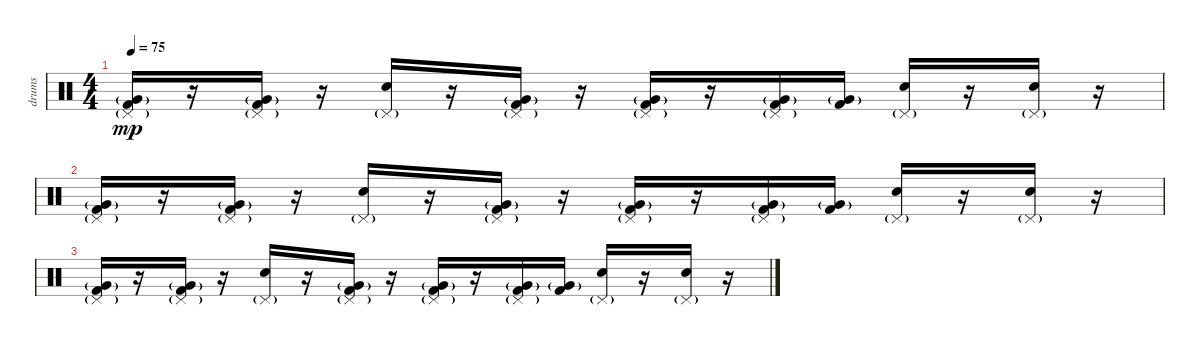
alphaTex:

\track ("drums" "drums") {instrument percussion}
\staff {score}
\articulation defaults
\ts (4 4)
\tempo 75
\clef neutral
\ks c
("Kick (hit) 2" "Very Low Tom (hit)"{g} "Pedal Hi-Hat (hit)"{g}).16{dy mp} r.16 ("Kick (hit) 2" "Very Low Tom (hit)"{g} "Pedal Hi-Hat (hit)"{g}).16 r.16 ("Electric Snare (hit)" "Pedal Hi-Hat (hit)"{g}).16 r.16 ("Kick (hit) 2" "Very Low Tom (hit)"{g} "Pedal Hi-Hat (hit)"{g}).16 r.16 ("Kick (hit) 2" "Very Low Tom (hit)"{g} "Pedal Hi-Hat (hit)"{g}).16 r.16 ("Kick (hit) 2" "Very Low Tom (hit)"{g} "Pedal Hi-Hat (hit)"{g}).16 ("Kick (hit) 2" "Very Low Tom (hit)"{g}).16 ("Electric Snare (hit)" "Pedal Hi-Hat (hit)"{g}).16 r.16 ("Electric Snare (hit)" "Pedal Hi-Hat (hit)"{g}).16 r.16 |
("Kick (hit) 2" "Very Low Tom (hit)"{g} "Pedal Hi-Hat (hit)"{g}).16 r.16 ("Kick (hit) 2" "Very Low Tom (hit)"{g} "Pedal Hi-Hat (hit)"{g}).16 r.16 ("Electric Snare (hit)" "Pedal Hi-Hat (hit)"{g}).16 r.16 ("Kick (hit) 2" "Very Low Tom (hit)"{g} "Pedal Hi-Hat (hit)"{g}).16 r.16 ("Kick (hit) 2" "Very Low Tom (hit)"{g} "Pedal Hi-Hat (hit)"{g}).16 r.16 ("Kick (hit) 2" "Very Low Tom (hit)"{g} "Pedal Hi-Hat (hit)"{g}).16 ("Kick (hit) 2" "Very Low Tom (hit)"{g}).16 ("Electric Snare (hit)" "Pedal Hi-Hat (hit)"{g}).16 r.16 ("Electric Snare (hit)" "Pedal Hi-Hat (hit)"{g}).16 r.16 |
("Kick (hit) 2" "Very Low Tom (hit)"{g} "Pedal Hi-Hat (hit)"{g}).16 r.16 ("Kick (hit) 2" "Very Low Tom (hit)"{g} "Pedal Hi-Hat (hit)"{g}).16 r.16 ("Electric Snare (hit)" "Pedal Hi-Hat (hit)"{g}).16 r.16 ("Kick (hit) 2" "Very Low Tom (hit)"{g} "Pedal Hi-Hat (hit)"{g}).16 r.16 ("Kick (hit) 2" "Very Low Tom (hit)"{g} "Pedal Hi-Hat (hit)"{g}).16 r.16 ("Kick (hit) 2" "Very Low Tom (hit)"{g} "Pedal Hi-Hat (hit)"{g}).16 ("Kick (hit) 2" "Very Low Tom (hit)"{g}).16 ("Electric Snare (hit)" "Pedal Hi-Hat (hit)"{g}).16 r.16 ("Electric Snare (hit)" "Pedal Hi-Hat (hit)"{g}).16 r.16
